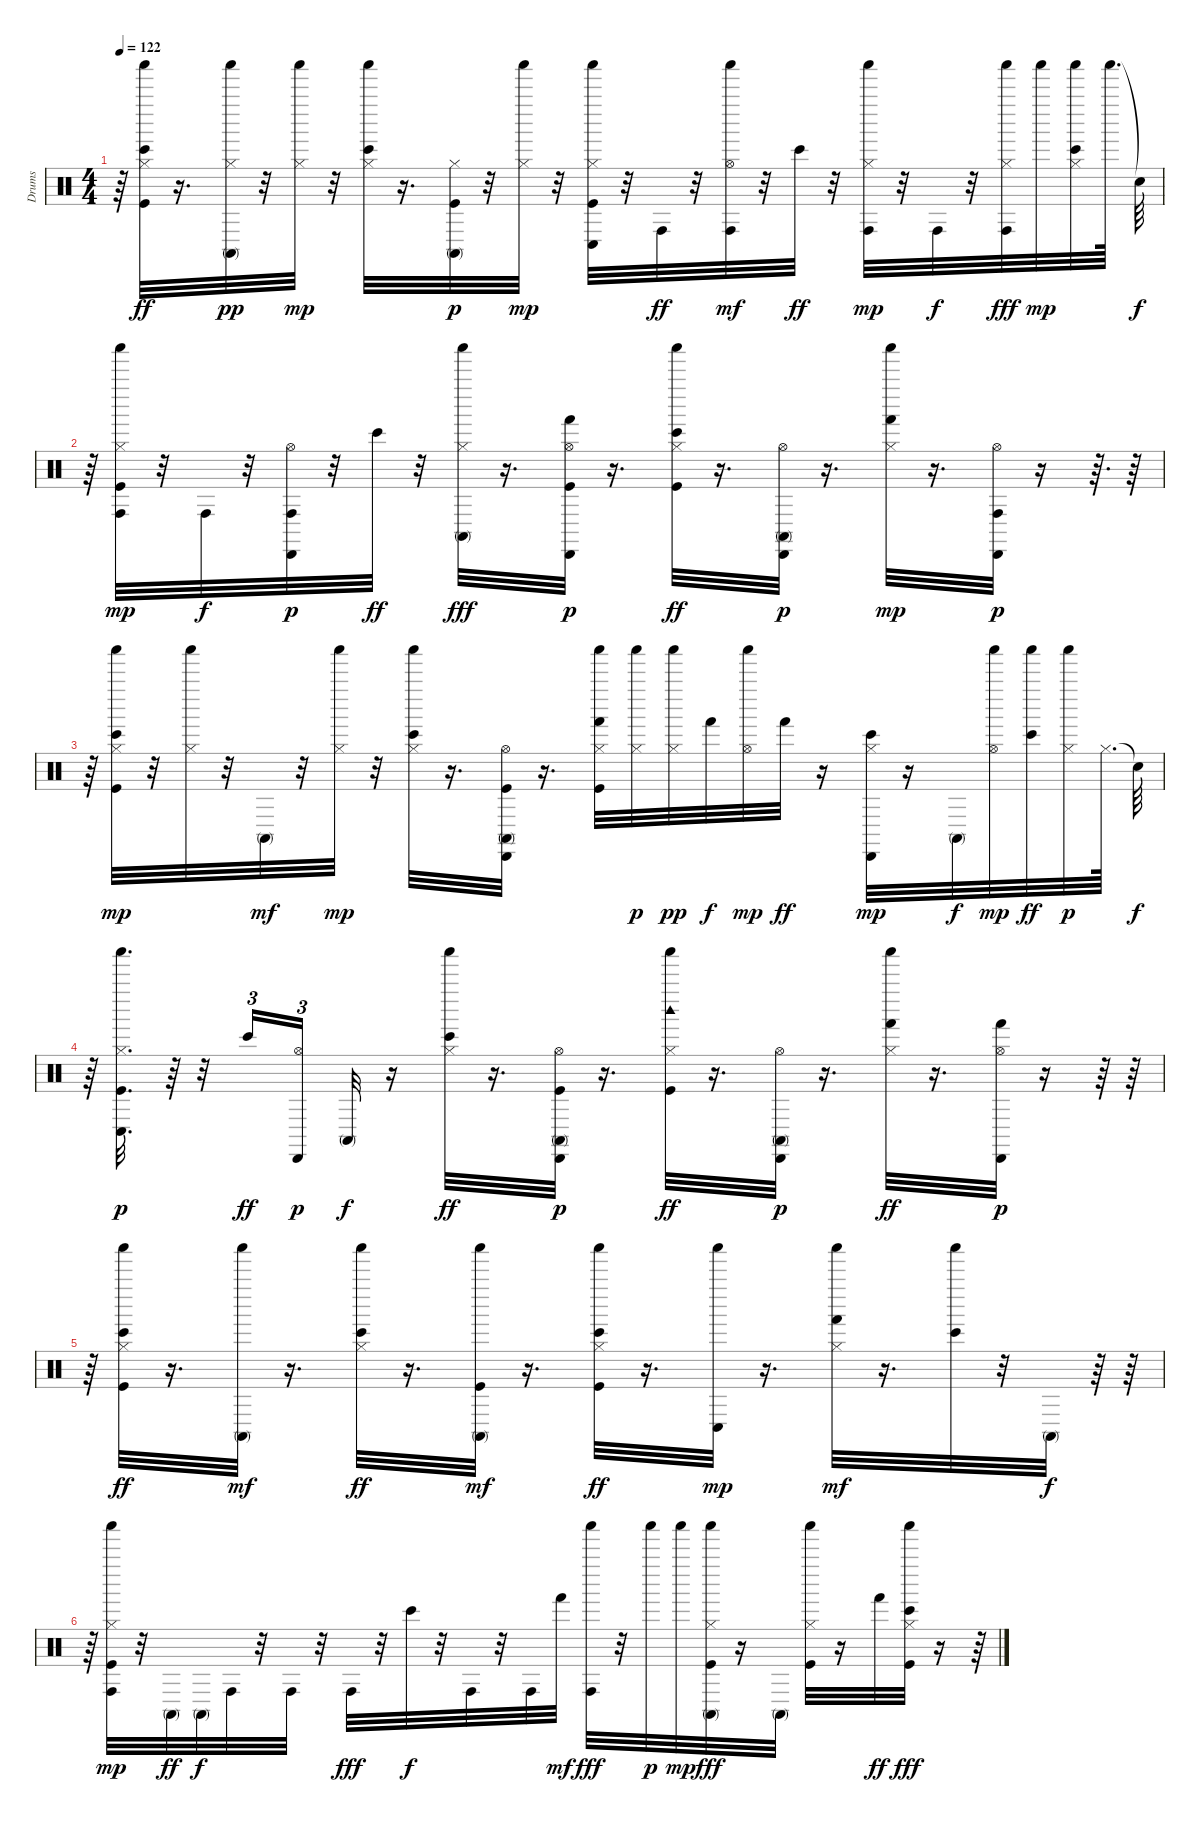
\track ("Drums" "Drums") {instrument percussion}
\staff {score}
\articulation defaults
\ts (4 4)
\tempo 122
\clef neutral
\ks c
r.64{dy p} ("Shaker (hit)" "Kick (hit)" "Hi-Hat (closed)" "Bongo High (hit)").32{dy ff} r.16{d} ("Conga high (mute)" "Hi-Hat (closed)" "Shaker (hit)").32{dy pp} r.32 ("Hi-Hat (closed)" "Shaker (hit)").32{dy mp} r.32 ("Bongo High (hit)" "Shaker (hit)" "Hi-Hat (closed)").32 r.16{d} ("Conga high (mute)" "Kick (hit)" "Hi-Hat (closed)").32{dy p} r.32 ("Hi-Hat (closed)" "Shaker (hit)").32{dy mp} r.32 ("Hi-Hat (closed)" "Conga low (hit)" "Shaker (hit)" "Kick (hit)").32 r.32 "Conga high (hit)".32{dy ff} r.32 ("Shaker (hit)" "Hi-Hat (open)" "Conga high (hit)").32{dy mf} r.32 "Bongo High (hit)".32{dy ff} r.32 ("Hi-Hat (closed)" "Shaker (hit)" "Conga high (hit)").32{dy mp} r.32 "Conga high (hit)".32{dy f} r.32 ("Shaker (hit)" "Hi-Hat (closed)" "Conga high (hit)").32{dy fff} "Shaker (hit)".32{dy mp} ("Hi-Hat (closed)" "Bongo High (hit)" "Shaker (hit)").32 "Shaker (hit)".64{d} "Snare (hit)"{t}.64{dy f} |
r.64 ("Kick (hit)" "Hi-Hat (closed)" "Conga high (hit)" "Shaker (hit)").32{dy mp} r.32 "Conga high (hit)".32{dy f} r.32 ("Hi-Hat (open)" "Conga high (hit)" "Cabasa (hit)").32{dy p} r.32 "Bongo High (hit)".32{dy ff} r.32 ("Hi-Hat (closed)" "Shaker (hit)" "Conga high (mute)").32{dy fff} r.16{d} ("Kick (hit)" "Hi-Hat (open)" "Hand (hit)" "Cabasa (hit)").32{dy p} r.16{d} ("Hi-Hat (closed)" "Bongo High (hit)" "Shaker (hit)" "Kick (hit)").32{dy ff} r.16{d} ("Conga high (mute)" "Hi-Hat (open)" "Cabasa (hit)").32{dy p} r.16{d} ("Hand (hit)" "Shaker (hit)" "Hi-Hat (closed)").32{dy mp} r.16{d} ("Conga high (hit)" "Hi-Hat (open)" "Cabasa (hit)").32{dy p} r.16 r.64{d} r.64 |
r.64 ("Bongo High (hit)" "Shaker (hit)" "Kick (hit)" "Hi-Hat (closed)").32{dy mp} r.32 ("Hi-Hat (closed)" "Shaker (hit)").32 r.32 "Conga high (mute)".32{dy mf} r.32 ("Hi-Hat (closed)" "Shaker (hit)").32{dy mp} r.32 ("Bongo High (hit)" "Shaker (hit)" "Hi-Hat (closed)").32 r.16{d} ("Conga high (mute)" "Kick (hit)" "Hi-Hat (open)" "Cabasa (hit)").32 r.16{d} ("Hi-Hat (closed)" "Kick (hit)" "Hand (hit)" "Shaker (hit)").32 ("Hi-Hat (closed)" "Shaker (hit)").32{dy p} ("Hi-Hat (closed)" "Shaker (hit)").32{dy pp} "Hand (hit)".32{dy f} ("Hi-Hat (open)" "Shaker (hit)").32{dy mp} "Hand (hit)".32{dy ff} r.16 ("Hi-Hat (closed)" "Bongo High (hit)" "Cabasa (hit)").32{dy mp} r.16 "Conga high (mute)".32{dy f} ("Hi-Hat (open)" "Shaker (hit)").32{dy mp} ("Shaker (hit)" "Bongo High (hit)").32{dy ff} ("Hi-Hat (closed)" "Shaker (hit)").32{dy p} "Hi-Hat (closed)".64{d} "Snare (hit)"{t}.64{dy f} |
r.64 ("Hi-Hat (closed)" "Kick (hit)" "Conga low (hit)" "Shaker (hit)").32{d dy p} r.64 r.32 "Bongo High (hit)".16{tu (3 2) dy ff} ("Hi-Hat (open)" "Cabasa (hit)").16{tu (3 2) dy p beam splitsecondary} "Conga high (mute)".32{dy f} r.16 ("Hi-Hat (closed)" "Shaker (hit)" "Bongo High (hit)").32{dy ff} r.16{d} ("Kick (hit)" "Hi-Hat (open)" "Conga high (mute)" "Cabasa (hit)").32{dy p} r.16{d} ("Hi-Hat (closed)" "Shaker (hit)" "Kick (hit)" "Woodblock high (hit)").32{dy ff} r.16{d} ("Hi-Hat (open)" "Conga high (mute)" "Cabasa (hit)").32{dy p} r.16{d} ("Hi-Hat (closed)" "Shaker (hit)" "Hand (hit)").32{dy ff} r.16{d} ("Hi-Hat (open)" "Hand (hit)" "Cabasa (hit)").32{dy p} r.16 r.64 r.64 |
r.64 ("Hi-Hat (closed)" "Shaker (hit)" "Kick (hit)" "Bongo High (hit)").32{dy ff} r.16{d} ("Shaker (hit)" "Conga high (mute)").32{dy mf} r.16{d} ("Hi-Hat (closed)" "Shaker (hit)" "Bongo High (hit)").32{dy ff} r.16{d} ("Shaker (hit)" "Kick (hit)" "Conga high (mute)").32{dy mf} r.16{d} ("Hi-Hat (closed)" "Shaker (hit)" "Kick (hit)" "Bongo High (hit)").32{dy ff} r.16{d} ("Shaker (hit)" "Conga low (hit)").32{dy mp} r.16{d} ("Hi-Hat (closed)" "Shaker (hit)" "Hand (hit)").32{dy mf} r.16{d} ("Shaker (hit)" "Bongo High (hit)").32 r.32 "Conga high (mute)".32{dy f} r.64 r.64 |
r.64 ("Kick (hit)" "Hi-Hat (closed)" "Conga high (hit)" "Shaker (hit)").32{dy mp} r.32 "Conga high (mute)".32{dy ff} "Conga high (mute)".32{dy f} "Conga high (hit)".32 r.32 "Conga high (hit)".32 r.32 "Conga high (hit)".32{dy fff} r.32 "Bongo High (hit)".32{dy f} r.32 "Conga high (hit)".32 r.32 "Conga high (hit)".32 "Hand (hit)".32{dy mf} ("Shaker (hit)" "Conga high (hit)").32{dy fff} r.32 "Shaker (hit)".32{dy p} "Shaker (hit)".32{dy mp} ("Shaker (hit)" "Kick (hit)" "Hi-Hat (closed)" "Conga high (mute)").32{dy fff} r.16 "Conga high (mute)".32 ("Hi-Hat (closed)" "Shaker (hit)" "Kick (hit)").32 r.16 "Hand (hit)".32{dy ff} ("Shaker (hit)" "Kick (hit)" "Hi-Hat (closed)" "Bongo High (hit)").32{dy fff} r.16 r.64
